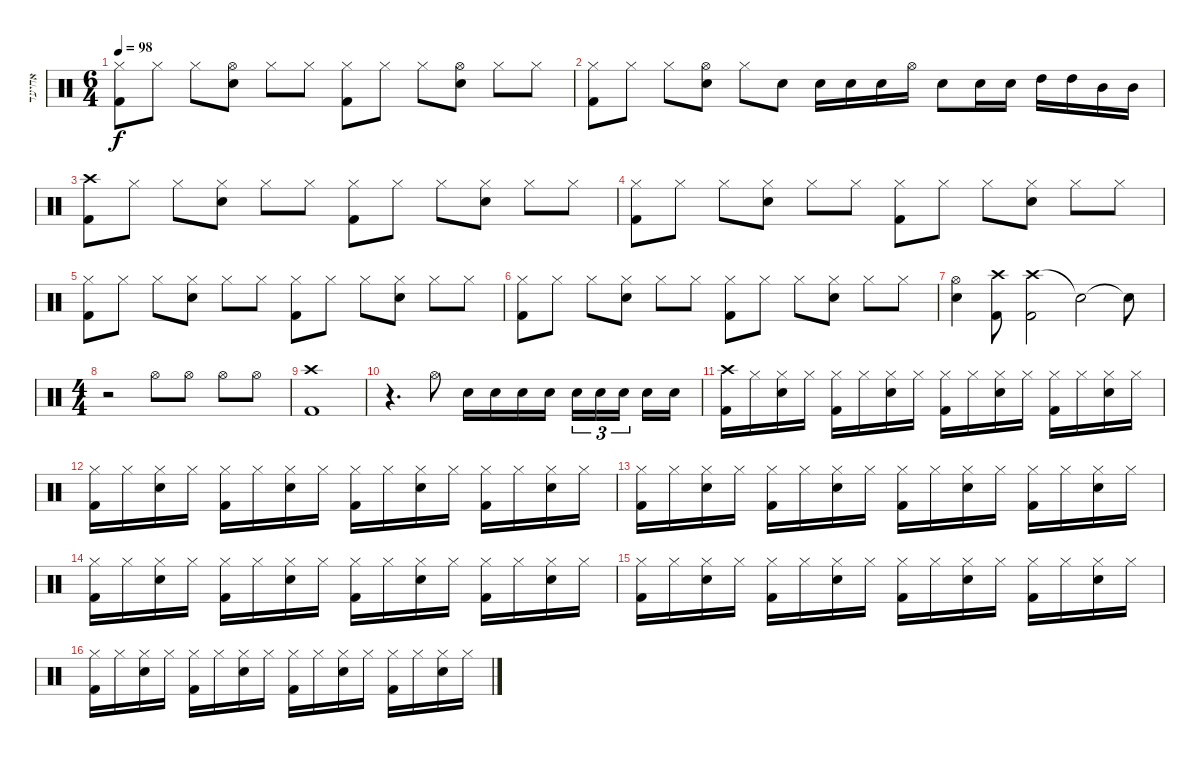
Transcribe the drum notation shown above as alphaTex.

\track ("אחיעד" "אחיעד") {instrument percussion}
\staff {score}
\articulation defaults
\ts (6 4)
\tempo 98
\clef neutral
\ks c
("Hi-Hat (closed)" "Kick (hit) 2").8{dy f} "Hi-Hat (closed)".8 "Hi-Hat (closed)".8 ("Hi-Hat (open)" "Snare (hit) 2").8 "Hi-Hat (closed)".8 "Hi-Hat (closed)".8 ("Hi-Hat (closed)" "Kick (hit) 2").8 "Hi-Hat (closed)".8 "Hi-Hat (closed)".8 ("Hi-Hat (open)" "Snare (hit) 2").8 "Hi-Hat (closed)".8 "Hi-Hat (closed)".8 |
("Hi-Hat (closed)" "Kick (hit) 2").8 "Hi-Hat (closed)".8 "Hi-Hat (closed)".8 ("Hi-Hat (open)" "Snare (hit) 2").8 "Hi-Hat (closed)".8 "Snare (hit) 2".8 "Snare (hit) 2".16 "Snare (hit) 2".16 "Snare (hit) 2".16 "Hi-Hat (open)".16 "Snare (hit) 2".8 "Snare (hit) 2".16 "Snare (hit) 2".16 "High Tom (hit)".16 "High Tom (hit)".16 "Mid Tom (hit)".16 "Mid Tom (hit)".16 |
("Crash high (hit)" "Kick (hit) 2").8 "Hi-Hat (closed)".8 "Hi-Hat (closed)".8 ("Hi-Hat (closed)" "Snare (hit) 2").8 "Hi-Hat (closed)".8 "Hi-Hat (closed)".8 ("Hi-Hat (closed)" "Kick (hit) 2").8 "Hi-Hat (closed)".8 "Hi-Hat (closed)".8 ("Hi-Hat (closed)" "Snare (hit) 2").8 "Hi-Hat (closed)".8 "Hi-Hat (closed)".8 |
("Hi-Hat (closed)" "Kick (hit) 2").8 "Hi-Hat (closed)".8 "Hi-Hat (closed)".8 ("Hi-Hat (closed)" "Snare (hit) 2").8 "Hi-Hat (closed)".8 "Hi-Hat (closed)".8 ("Hi-Hat (closed)" "Kick (hit) 2").8 "Hi-Hat (closed)".8 "Hi-Hat (closed)".8 ("Hi-Hat (closed)" "Snare (hit) 2").8 "Hi-Hat (closed)".8 "Hi-Hat (closed)".8 |
("Hi-Hat (closed)" "Kick (hit) 2").8 "Hi-Hat (closed)".8 "Hi-Hat (closed)".8 ("Hi-Hat (closed)" "Snare (hit) 2").8 "Hi-Hat (closed)".8 "Hi-Hat (closed)".8 ("Hi-Hat (closed)" "Kick (hit) 2").8 "Hi-Hat (closed)".8 "Hi-Hat (closed)".8 ("Hi-Hat (closed)" "Snare (hit) 2").8 "Hi-Hat (closed)".8 "Hi-Hat (closed)".8 |
("Hi-Hat (closed)" "Kick (hit) 2").8 "Hi-Hat (closed)".8 "Hi-Hat (closed)".8 ("Hi-Hat (closed)" "Snare (hit) 2").8 "Hi-Hat (closed)".8 "Hi-Hat (closed)".8 ("Hi-Hat (closed)" "Kick (hit) 2").8 "Hi-Hat (closed)".8 "Hi-Hat (closed)".8 ("Hi-Hat (closed)" "Snare (hit) 2").8 "Hi-Hat (closed)".8 "Hi-Hat (closed)".8 |
("Hi-Hat (open)" "Snare (hit) 2").4 ("Crash high (hit)" "Kick (hit) 2").8 ("Crash high (hit)" "Kick (hit) 2").2 "Snare (hit)"{t}.2 "Snare (hit)"{t}.8 |
\ts (4 4)
r.2 "Hi-Hat (open)".8 "Hi-Hat (open)".8 "Hi-Hat (open)".8 "Hi-Hat (open)".8 |
("Crash high (hit)" "Kick (hit) 2").1 |
r.4{d} "Hi-Hat (open)".8 "Snare (hit) 2".16 "Snare (hit) 2".16 "Snare (hit) 2".16 "Snare (hit) 2".16 "Snare (hit) 2".16{tu (3 2)} "Snare (hit) 2".16{tu (3 2)} "Snare (hit) 2".16{tu (3 2)} "Snare (hit) 2".16 "Snare (hit) 2".16 |
("Crash high (hit)" "Kick (hit) 2").16 "Hi-Hat (closed)".16 ("Hi-Hat (closed)" "Snare (hit) 2").16 "Hi-Hat (closed)".16 ("Hi-Hat (closed)" "Kick (hit) 2").16 "Hi-Hat (closed)".16 ("Hi-Hat (closed)" "Snare (hit) 2").16 "Hi-Hat (closed)".16 ("Hi-Hat (closed)" "Kick (hit) 2").16 "Hi-Hat (closed)".16 ("Hi-Hat (closed)" "Snare (hit) 2").16 "Hi-Hat (closed)".16 ("Hi-Hat (closed)" "Kick (hit) 2").16 "Hi-Hat (closed)".16 ("Hi-Hat (closed)" "Snare (hit) 2").16 "Hi-Hat (closed)".16 |
("Hi-Hat (closed)" "Kick (hit) 2").16 "Hi-Hat (closed)".16 ("Hi-Hat (closed)" "Snare (hit) 2").16 "Hi-Hat (closed)".16 ("Hi-Hat (closed)" "Kick (hit) 2").16 "Hi-Hat (closed)".16 ("Hi-Hat (closed)" "Snare (hit) 2").16 "Hi-Hat (closed)".16 ("Hi-Hat (closed)" "Kick (hit) 2").16 "Hi-Hat (closed)".16 ("Hi-Hat (closed)" "Snare (hit) 2").16 "Hi-Hat (closed)".16 ("Hi-Hat (closed)" "Kick (hit) 2").16 "Hi-Hat (closed)".16 ("Hi-Hat (closed)" "Snare (hit) 2").16 "Hi-Hat (closed)".16 |
("Hi-Hat (closed)" "Kick (hit) 2").16 "Hi-Hat (closed)".16 ("Hi-Hat (closed)" "Snare (hit) 2").16 "Hi-Hat (closed)".16 ("Hi-Hat (closed)" "Kick (hit) 2").16 "Hi-Hat (closed)".16 ("Hi-Hat (closed)" "Snare (hit) 2").16 "Hi-Hat (closed)".16 ("Hi-Hat (closed)" "Kick (hit) 2").16 "Hi-Hat (closed)".16 ("Hi-Hat (closed)" "Snare (hit) 2").16 "Hi-Hat (closed)".16 ("Hi-Hat (closed)" "Kick (hit) 2").16 "Hi-Hat (closed)".16 ("Hi-Hat (closed)" "Snare (hit) 2").16 "Hi-Hat (closed)".16 |
("Hi-Hat (closed)" "Kick (hit) 2").16 "Hi-Hat (closed)".16 ("Hi-Hat (closed)" "Snare (hit) 2").16 "Hi-Hat (closed)".16 ("Hi-Hat (closed)" "Kick (hit) 2").16 "Hi-Hat (closed)".16 ("Hi-Hat (closed)" "Snare (hit) 2").16 "Hi-Hat (closed)".16 ("Hi-Hat (closed)" "Kick (hit) 2").16 "Hi-Hat (closed)".16 ("Hi-Hat (closed)" "Snare (hit) 2").16 "Hi-Hat (closed)".16 ("Hi-Hat (closed)" "Kick (hit) 2").16 "Hi-Hat (closed)".16 ("Hi-Hat (closed)" "Snare (hit) 2").16 "Hi-Hat (closed)".16 |
("Hi-Hat (closed)" "Kick (hit) 2").16 "Hi-Hat (closed)".16 ("Hi-Hat (closed)" "Snare (hit) 2").16 "Hi-Hat (closed)".16 ("Hi-Hat (closed)" "Kick (hit) 2").16 "Hi-Hat (closed)".16 ("Hi-Hat (closed)" "Snare (hit) 2").16 "Hi-Hat (closed)".16 ("Hi-Hat (closed)" "Kick (hit) 2").16 "Hi-Hat (closed)".16 ("Hi-Hat (closed)" "Snare (hit) 2").16 "Hi-Hat (closed)".16 ("Hi-Hat (closed)" "Kick (hit) 2").16 "Hi-Hat (closed)".16 ("Hi-Hat (closed)" "Snare (hit) 2").16 "Hi-Hat (closed)".16 |
("Hi-Hat (closed)" "Kick (hit) 2").16 "Hi-Hat (closed)".16 ("Hi-Hat (closed)" "Snare (hit) 2").16 "Hi-Hat (closed)".16 ("Hi-Hat (closed)" "Kick (hit) 2").16 "Hi-Hat (closed)".16 ("Hi-Hat (closed)" "Snare (hit) 2").16 "Hi-Hat (closed)".16 ("Hi-Hat (closed)" "Kick (hit) 2").16 "Hi-Hat (closed)".16 ("Hi-Hat (closed)" "Snare (hit) 2").16 "Hi-Hat (closed)".16 ("Hi-Hat (closed)" "Kick (hit) 2").16 "Hi-Hat (closed)".16 ("Hi-Hat (closed)" "Snare (hit) 2").16 "Hi-Hat (closed)".16
